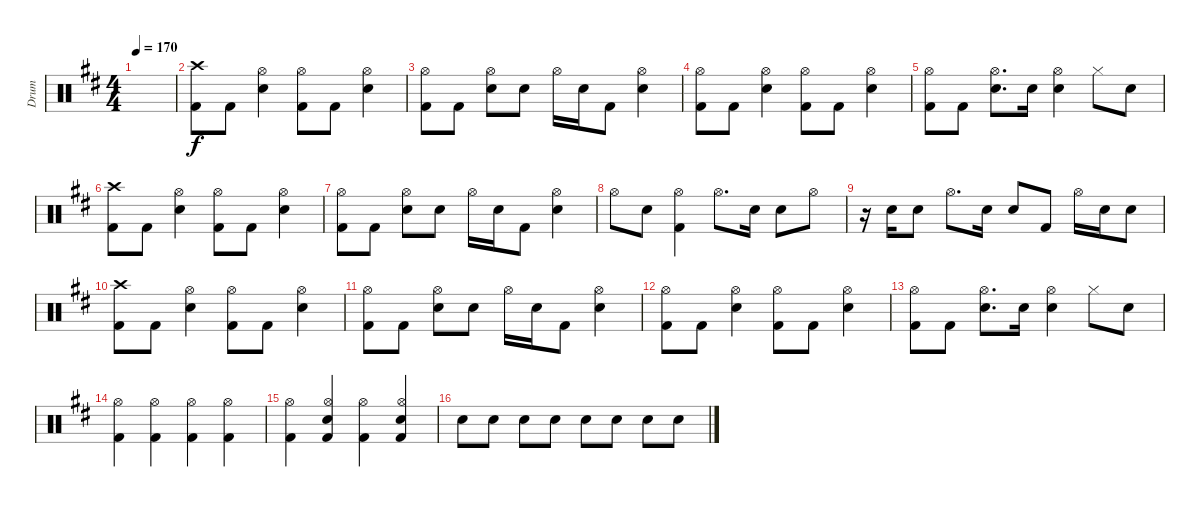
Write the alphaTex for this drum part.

\track ("Drum" "Drum") {instrument percussion}
\staff {score}
\articulation defaults
\ts (4 4)
\tempo 170
\clef neutral
\ks d
|
("Crash high (hit)" "Kick (hit) 2").8 "Kick (hit) 2".8 ("Hi-Hat (open)" "Electric Snare (hit)").4 ("Hi-Hat (open)" "Kick (hit) 2").8 "Kick (hit) 2".8 ("Hi-Hat (open)" "Electric Snare (hit)").4 |
("Hi-Hat (open)" "Kick (hit) 2").8 "Kick (hit) 2".8 ("Hi-Hat (open)" "Electric Snare (hit)").8 "Electric Snare (hit)".8 "Hi-Hat (open)".16 "Electric Snare (hit)".16 "Kick (hit) 2".8 ("Hi-Hat (open)" "Electric Snare (hit)").4 |
("Hi-Hat (open)" "Kick (hit) 2").8 "Kick (hit) 2".8 ("Hi-Hat (open)" "Electric Snare (hit)").4 ("Hi-Hat (open)" "Kick (hit) 2").8 "Kick (hit) 2".8 ("Hi-Hat (open)" "Electric Snare (hit)").4 |
("Hi-Hat (open)" "Kick (hit) 2").8 "Kick (hit) 2".8 ("Hi-Hat (open)" "Electric Snare (hit)").8{d} "Electric Snare (hit)".16 ("Hi-Hat (open)" "Electric Snare (hit)").4 "Hi-Hat (closed)".8 "Electric Snare (hit)".8 |
("Crash high (hit)" "Kick (hit) 2").8 "Kick (hit) 2".8 ("Hi-Hat (open)" "Electric Snare (hit)").4 ("Hi-Hat (open)" "Kick (hit) 2").8 "Kick (hit) 2".8 ("Hi-Hat (open)" "Electric Snare (hit)").4 |
("Hi-Hat (open)" "Kick (hit) 2").8 "Kick (hit) 2".8 ("Hi-Hat (open)" "Electric Snare (hit)").8 "Electric Snare (hit)".8 "Hi-Hat (open)".16 "Electric Snare (hit)".16 "Kick (hit) 2".8 ("Hi-Hat (open)" "Electric Snare (hit)").4 |
"Hi-Hat (open)".8 "Electric Snare (hit)".8 ("Hi-Hat (open)" "Kick (hit) 2").4 "Hi-Hat (open)".8{d} "Electric Snare (hit)".16 "Electric Snare (hit)".8 "Hi-Hat (open)".8 |
r.16 "Electric Snare (hit)".16 "Electric Snare (hit)".8 "Hi-Hat (open)".8{d} "Electric Snare (hit)".16 "Electric Snare (hit)".8 "Kick (hit) 2".8 "Hi-Hat (open)".16 "Electric Snare (hit)".16 "Electric Snare (hit)".8 |
("Crash high (hit)" "Kick (hit) 2").8 "Kick (hit) 2".8 ("Hi-Hat (open)" "Electric Snare (hit)").4 ("Hi-Hat (open)" "Kick (hit) 2").8 "Kick (hit) 2".8 ("Hi-Hat (open)" "Electric Snare (hit)").4 |
("Hi-Hat (open)" "Kick (hit) 2").8 "Kick (hit) 2".8 ("Hi-Hat (open)" "Electric Snare (hit)").8 "Electric Snare (hit)".8 "Hi-Hat (open)".16 "Electric Snare (hit)".16 "Kick (hit) 2".8 ("Hi-Hat (open)" "Electric Snare (hit)").4 |
("Hi-Hat (open)" "Kick (hit) 2").8 "Kick (hit) 2".8 ("Hi-Hat (open)" "Electric Snare (hit)").4 ("Hi-Hat (open)" "Kick (hit) 2").8 "Kick (hit) 2".8 ("Hi-Hat (open)" "Electric Snare (hit)").4 |
("Hi-Hat (open)" "Kick (hit) 2").8 "Kick (hit) 2".8 ("Hi-Hat (open)" "Electric Snare (hit)").8{d} "Electric Snare (hit)".16 ("Hi-Hat (open)" "Electric Snare (hit)").4 "Hi-Hat (closed)".8 "Electric Snare (hit)".8 |
("Hi-Hat (open)" "Kick (hit) 2").4 ("Hi-Hat (open)" "Kick (hit) 2").4 ("Hi-Hat (open)" "Kick (hit) 2").4 ("Hi-Hat (open)" "Kick (hit) 2").4 |
("Hi-Hat (open)" "Kick (hit) 2").4 ("Hi-Hat (open)" "Electric Snare (hit)" "Kick (hit) 2").4 ("Hi-Hat (open)" "Kick (hit) 2").4 ("Hi-Hat (open)" "Electric Snare (hit)" "Kick (hit) 2").4 |
"Electric Snare (hit)".8 "Electric Snare (hit)".8 "Electric Snare (hit)".8 "Electric Snare (hit)".8 "Electric Snare (hit)".8 "Electric Snare (hit)".8 "Electric Snare (hit)".8 "Electric Snare (hit)".8
